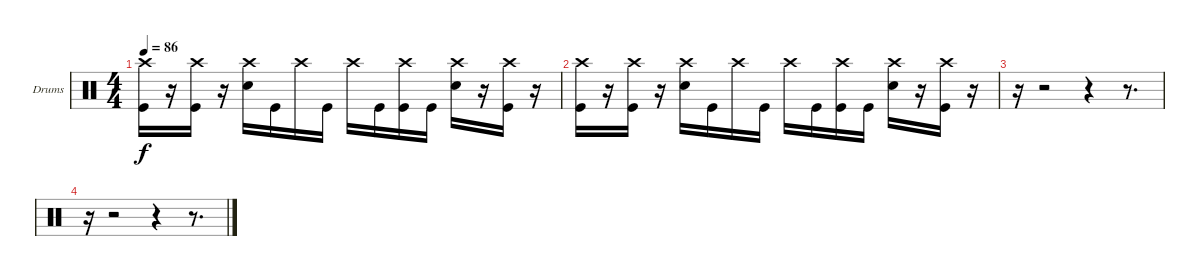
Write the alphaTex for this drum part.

\bracketExtendMode groupsimilarinstruments
\firstSystemTrackNameOrientation horizontal
\otherSystemsTrackNameOrientation horizontal
\track ("Drumkit" "Drums") {instrument percussion}
\staff {score}
\articulation defaults
\ts (4 4)
\tempo 86
\clef neutral
\ks c
("Crash high (hit)" "Kick (hit)").16{dy f} r.16 ("Crash high (hit)" "Kick (hit)").16 r.16 ("Crash high (hit)" "Snare (hit) 2").16 "Kick (hit)".16 "Crash high (hit)".16 "Kick (hit)".16 "Crash high (hit)".16 "Kick (hit)".16 ("Crash high (hit)" "Kick (hit)").16 "Kick (hit)".16 ("Crash high (hit)" "Snare (hit) 2").16 r.16 ("Crash high (hit)" "Kick (hit)").16 r.16 |
("Crash high (hit)" "Kick (hit)").16 r.16 ("Crash high (hit)" "Kick (hit)").16 r.16 ("Crash high (hit)" "Snare (hit) 2").16 "Kick (hit)".16 "Crash high (hit)".16 "Kick (hit)".16 "Crash high (hit)".16 "Kick (hit)".16 ("Crash high (hit)" "Kick (hit)").16 "Kick (hit)".16 ("Crash high (hit)" "Snare (hit) 2").16 r.16 ("Crash high (hit)" "Kick (hit)").16 r.16 |
r.16 r.2 r.4 r.8{d} |
r.16 r.2 r.4 r.8{d}
